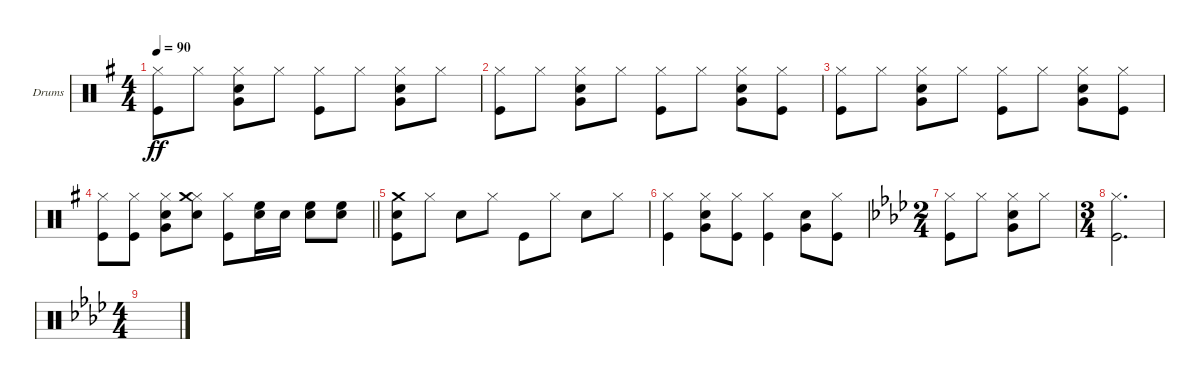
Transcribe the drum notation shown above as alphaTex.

\defaultSystemsLayout 4
\bracketExtendMode groupsimilarinstruments
\firstSystemTrackNameOrientation horizontal
\otherSystemsTrackNameOrientation horizontal
\track ("Drumkit" "Drums") {instrument percussion}
\staff {score}
\articulation defaults
\ts (4 4)
\tempo 90
\clef neutral
\ks g
("Kick (hit)" "Hi-Hat (closed)").8{dy ff} "Hi-Hat (closed)".8 ("Snare (hit) 2" "Hi-Hat (closed)" "Very Low Tom (hit)").8 "Hi-Hat (closed)".8 ("Kick (hit)" "Hi-Hat (closed)").8 "Hi-Hat (closed)".8 ("Snare (hit) 2" "Hi-Hat (closed)" "Very Low Tom (hit)").8 "Hi-Hat (closed)".8 |
("Kick (hit)" "Hi-Hat (closed)").8 "Hi-Hat (closed)".8 ("Snare (hit) 2" "Hi-Hat (closed)" "Very Low Tom (hit)").8 "Hi-Hat (closed)".8 ("Kick (hit)" "Hi-Hat (closed)").8 "Hi-Hat (closed)".8 ("Snare (hit) 2" "Hi-Hat (closed)" "Very Low Tom (hit)").8 ("Kick (hit)" "Hi-Hat (closed)").8 |
("Kick (hit)" "Hi-Hat (closed)").8 "Hi-Hat (closed)".8 ("Snare (hit) 2" "Hi-Hat (closed)" "Very Low Tom (hit)").8 "Hi-Hat (closed)".8 ("Kick (hit)" "Hi-Hat (closed)").8 "Hi-Hat (closed)".8 ("Snare (hit) 2" "Hi-Hat (closed)" "Very Low Tom (hit)").8 ("Kick (hit)" "Hi-Hat (closed)").8 |
\barLineRight lightlight
("Kick (hit)" "Hi-Hat (closed)").8 ("Kick (hit)" "Hi-Hat (closed)").8 ("Snare (hit) 2" "Hi-Hat (closed)" "Very Low Tom (hit)").8 ("Snare (hit) 2" "Hi-Hat (closed)" "Crash medium (hit)").8 ("Kick (hit)" "Hi-Hat (closed)").8 ("Snare (hit) 2" "High Floor Tom (hit)").16 "Snare (hit) 2".16 ("Snare (hit) 2" "High Floor Tom (hit)").8 ("Snare (hit) 2" "High Floor Tom (hit)").8 |
("Kick (hit)" "Snare (hit) 2" "Crash medium (hit)").8 "Hi-Hat (closed)".8 "Snare (hit) 2".8 "Hi-Hat (closed)".8 "Kick (hit)".8 "Hi-Hat (closed)".8 "Snare (hit) 2".8 "Hi-Hat (closed)".8 |
("Kick (hit)" "Hi-Hat (closed)").4 ("Snare (hit) 2" "Hi-Hat (closed)" "Very Low Tom (hit)").8 ("Kick (hit)" "Hi-Hat (closed)").8 ("Kick (hit)" "Hi-Hat (closed)").4 ("Snare (hit) 2" "Very Low Tom (hit)").8 ("Kick (hit)" "Hi-Hat (closed)").8 |
\ts (2 4)
\ks ab
("Kick (hit)" "Hi-Hat (closed)").8 "Hi-Hat (closed)".8 ("Snare (hit) 2" "Hi-Hat (closed)" "Very Low Tom (hit)").8 "Hi-Hat (closed)".8 |
\ts (3 4)
("Kick (hit)" "Hi-Hat (closed)").2{d} |
\ts (4 4)
